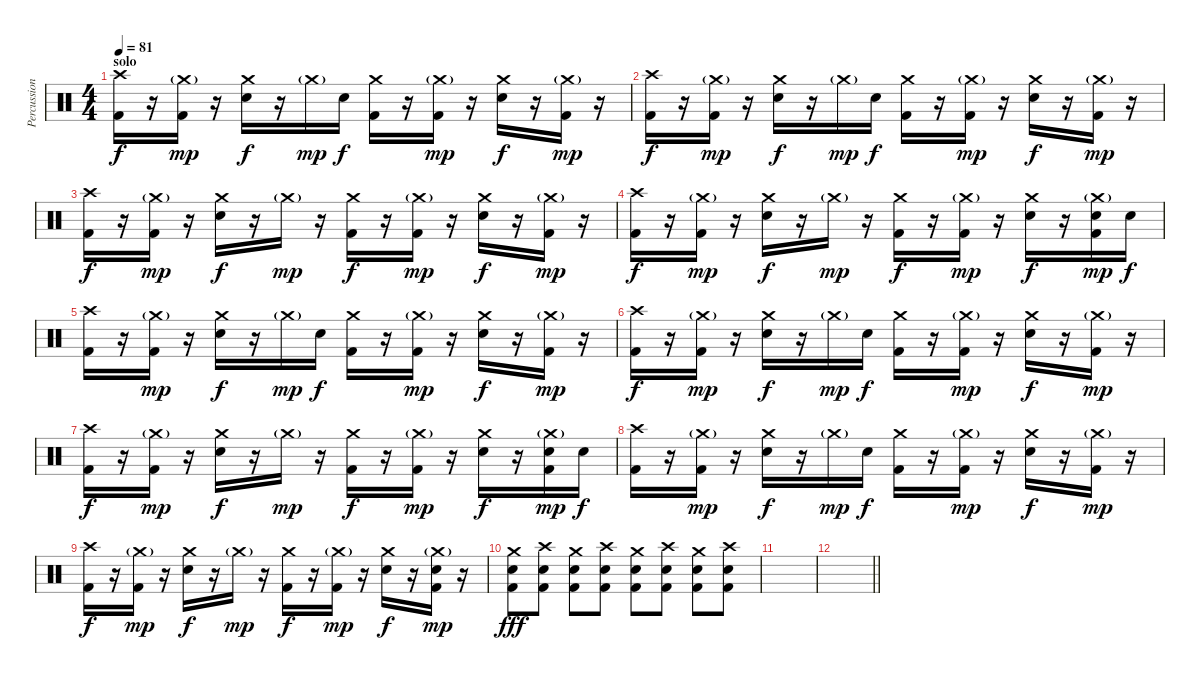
\track ("Percussions" "Percussion") {instrument percussion bank 16}
\staff {score}
\articulation defaults
\ts (4 4)
\section ("" "solo")
\tempo 81
\clef neutral
\ks c
("Crash high (hit)" "Kick (hit) 2").16{dy f} r.16 ("Crash medium (hit)"{g} "Kick (hit) 2").16{dy mp} r.16 ("Crash medium (hit)" "Electric Snare (hit)").16{dy f} r.16 "Crash medium (hit)"{g}.16{dy mp} "Electric Snare (hit)".16{dy f} ("Crash medium (hit)" "Kick (hit) 2").16 r.16 ("Crash medium (hit)"{g} "Kick (hit) 2").16{dy mp} r.16 ("Crash medium (hit)" "Electric Snare (hit)").16{dy f} r.16 ("Crash medium (hit)"{g} "Kick (hit) 2").16{dy mp} r.16 |
("Crash high (hit)" "Kick (hit) 2").16{dy f} r.16 ("Crash medium (hit)"{g} "Kick (hit) 2").16{dy mp} r.16 ("Crash medium (hit)" "Electric Snare (hit)").16{dy f} r.16 "Crash medium (hit)"{g}.16{dy mp} "Electric Snare (hit)".16{dy f} ("Crash medium (hit)" "Kick (hit) 2").16 r.16 ("Crash medium (hit)"{g} "Kick (hit) 2").16{dy mp} r.16 ("Crash medium (hit)" "Electric Snare (hit)").16{dy f} r.16 ("Crash medium (hit)"{g} "Kick (hit) 2").16{dy mp} r.16 |
("Crash high (hit)" "Kick (hit) 2").16{dy f} r.16 ("Crash medium (hit)"{g} "Kick (hit) 2").16{dy mp} r.16 ("Crash medium (hit)" "Electric Snare (hit)").16{dy f} r.16 "Crash medium (hit)"{g}.16{dy mp} r.16 ("Crash medium (hit)" "Kick (hit) 2").16{dy f} r.16 ("Crash medium (hit)"{g} "Kick (hit) 2").16{dy mp} r.16 ("Crash medium (hit)" "Electric Snare (hit)").16{dy f} r.16 ("Crash medium (hit)"{g} "Kick (hit) 2").16{dy mp} r.16 |
("Crash high (hit)" "Kick (hit) 2").16{dy f} r.16 ("Crash medium (hit)"{g} "Kick (hit) 2").16{dy mp} r.16 ("Crash medium (hit)" "Electric Snare (hit)").16{dy f} r.16 "Crash medium (hit)"{g}.16{dy mp} r.16 ("Crash medium (hit)" "Kick (hit) 2").16{dy f} r.16 ("Crash medium (hit)"{g} "Kick (hit) 2").16{dy mp} r.16 ("Crash medium (hit)" "Electric Snare (hit)").16{dy f} r.16 ("Crash medium (hit)"{g} "Electric Snare (hit)" "Kick (hit) 2").16{dy mp} "Electric Snare (hit)".16{dy f} |
("Crash high (hit)" "Kick (hit) 2").16 r.16 ("Crash medium (hit)"{g} "Kick (hit) 2").16{dy mp} r.16 ("Crash medium (hit)" "Electric Snare (hit)").16{dy f} r.16 "Crash medium (hit)"{g}.16{dy mp} "Electric Snare (hit)".16{dy f} ("Crash medium (hit)" "Kick (hit) 2").16 r.16 ("Crash medium (hit)"{g} "Kick (hit) 2").16{dy mp} r.16 ("Crash medium (hit)" "Electric Snare (hit)").16{dy f} r.16 ("Crash medium (hit)"{g} "Kick (hit) 2").16{dy mp} r.16 |
("Crash high (hit)" "Kick (hit) 2").16{dy f} r.16 ("Crash medium (hit)"{g} "Kick (hit) 2").16{dy mp} r.16 ("Crash medium (hit)" "Electric Snare (hit)").16{dy f} r.16 "Crash medium (hit)"{g}.16{dy mp} "Electric Snare (hit)".16{dy f} ("Crash medium (hit)" "Kick (hit) 2").16 r.16 ("Crash medium (hit)"{g} "Kick (hit) 2").16{dy mp} r.16 ("Crash medium (hit)" "Electric Snare (hit)").16{dy f} r.16 ("Crash medium (hit)"{g} "Kick (hit) 2").16{dy mp} r.16 |
("Crash high (hit)" "Kick (hit) 2").16{dy f} r.16 ("Crash medium (hit)"{g} "Kick (hit) 2").16{dy mp} r.16 ("Crash medium (hit)" "Electric Snare (hit)").16{dy f} r.16 "Crash medium (hit)"{g}.16{dy mp} r.16 ("Crash medium (hit)" "Kick (hit) 2").16{dy f} r.16 ("Crash medium (hit)"{g} "Kick (hit) 2").16{dy mp} r.16 ("Crash medium (hit)" "Electric Snare (hit)").16{dy f} r.16 ("Crash medium (hit)"{g} "Electric Snare (hit)" "Kick (hit) 2").16{dy mp} "Electric Snare (hit)".16{dy f} |
("Crash high (hit)" "Kick (hit) 2").16 r.16 ("Crash medium (hit)"{g} "Kick (hit) 2").16{dy mp} r.16 ("Crash medium (hit)" "Electric Snare (hit)").16{dy f} r.16 "Crash medium (hit)"{g}.16{dy mp} "Electric Snare (hit)".16{dy f} ("Crash medium (hit)" "Kick (hit) 2").16 r.16 ("Crash medium (hit)"{g} "Kick (hit) 2").16{dy mp} r.16 ("Crash medium (hit)" "Electric Snare (hit)").16{dy f} r.16 ("Crash medium (hit)"{g} "Kick (hit) 2").16{dy mp} r.16 |
("Crash high (hit)" "Kick (hit) 2").16{dy f} r.16 ("Crash medium (hit)"{g} "Kick (hit) 2").16{dy mp} r.16 ("Crash medium (hit)" "Electric Snare (hit)").16{dy f} r.16 "Crash medium (hit)"{g}.16{dy mp} r.16 ("Crash medium (hit)" "Kick (hit) 2").16{dy f} r.16 ("Crash medium (hit)"{g} "Kick (hit) 2").16{dy mp} r.16 ("Crash medium (hit)" "Electric Snare (hit)").16{dy f} r.16 ("Crash medium (hit)"{g} "Electric Snare (hit)" "Kick (hit) 2").16{dy mp} r.16 |
("Crash medium (hit)" "Electric Snare (hit)" "Kick (hit) 2").8{dy fff} ("Crash high (hit)" "Electric Snare (hit)" "Kick (hit) 2").8 ("Crash medium (hit)" "Electric Snare (hit)" "Kick (hit) 2").8 ("Crash high (hit)" "Electric Snare (hit)" "Kick (hit) 2").8 ("Crash medium (hit)" "Electric Snare (hit)" "Kick (hit) 2").8 ("Crash high (hit)" "Electric Snare (hit)" "Kick (hit) 2").8 ("Crash medium (hit)" "Electric Snare (hit)" "Kick (hit) 2").8 ("Crash high (hit)" "Electric Snare (hit)" "Kick (hit) 2").8 |
|
\barLineRight lightlight
